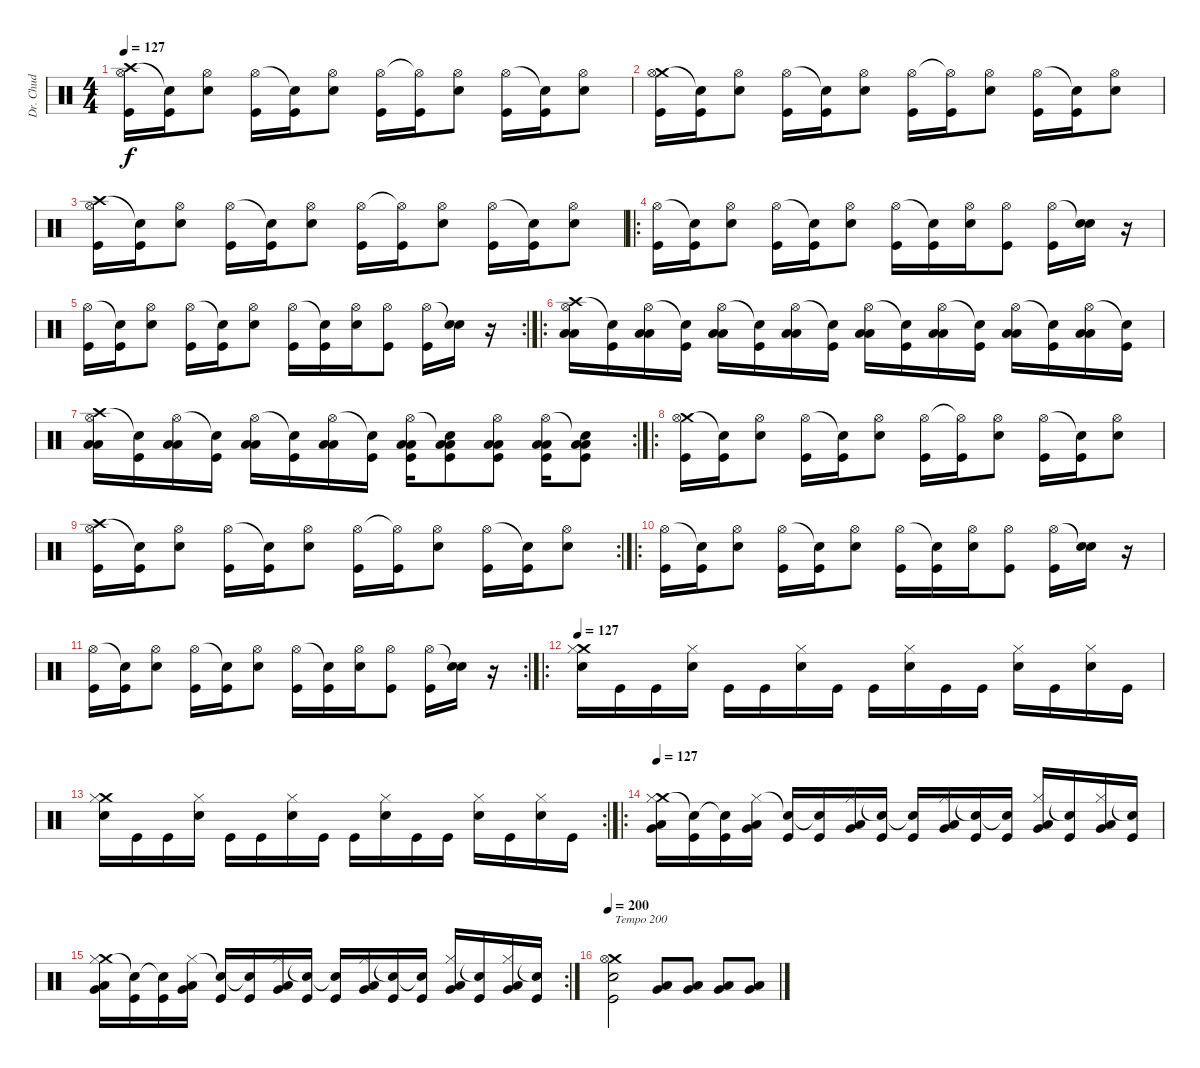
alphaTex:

\track ("Dr. Chud" "Dr. Chud") {instrument percussion}
\staff {score}
\articulation defaults
\ts (4 4)
\tempo 127
\clef neutral
\ks c
("Crash high (hit)" "Hi-Hat (open)" "Kick (hit)").16{dy f} ("Snare (hit)"{t} "Kick (hit)").16 ("Hi-Hat (open)" "Snare (hit) 2").8 ("Hi-Hat (open)" "Kick (hit)").16 ("Snare (hit)"{t} "Kick (hit)").16 ("Hi-Hat (open)" "Snare (hit) 2").8 ("Hi-Hat (open)" "Kick (hit)").16 ("Hi-Hat (open)"{t} "Kick (hit)").16 ("Hi-Hat (open)" "Snare (hit) 2").8 ("Hi-Hat (open)" "Kick (hit)").16 ("Snare (hit)"{t} "Kick (hit)").16 ("Hi-Hat (open)" "Snare (hit) 2").8 |
("Crash medium (hit)" "Hi-Hat (open)" "Kick (hit)").16 ("Snare (hit)"{t} "Kick (hit)").16 ("Hi-Hat (open)" "Snare (hit) 2").8 ("Hi-Hat (open)" "Kick (hit)").16 ("Snare (hit)"{t} "Kick (hit)").16 ("Hi-Hat (open)" "Snare (hit) 2").8 ("Hi-Hat (open)" "Kick (hit)").16 ("Hi-Hat (open)"{t} "Kick (hit)").16 ("Hi-Hat (open)" "Snare (hit) 2").8 ("Hi-Hat (open)" "Kick (hit)").16 ("Snare (hit)"{t} "Kick (hit)").16 ("Hi-Hat (open)" "Snare (hit) 2").8 |
("Crash high (hit)" "Hi-Hat (open)" "Kick (hit)").16 ("Snare (hit)"{t} "Kick (hit)").16 ("Hi-Hat (open)" "Snare (hit) 2").8 ("Hi-Hat (open)" "Kick (hit)").16 ("Snare (hit)"{t} "Kick (hit)").16 ("Hi-Hat (open)" "Snare (hit) 2").8 ("Hi-Hat (open)" "Kick (hit)").16 ("Hi-Hat (open)"{t} "Kick (hit)").16 ("Hi-Hat (open)" "Snare (hit) 2").8 ("Hi-Hat (open)" "Kick (hit)").16 ("Snare (hit)"{t} "Kick (hit)").16 ("Hi-Hat (open)" "Snare (hit) 2").8 |
\ro
("Hi-Hat (open)" "Kick (hit)").16 ("Snare (hit)"{t} "Kick (hit)").16 ("Hi-Hat (open)" "Snare (hit) 2").8 ("Hi-Hat (open)" "Kick (hit)").16 ("Snare (hit)"{t} "Kick (hit)").16 ("Hi-Hat (open)" "Snare (hit) 2").8 ("Hi-Hat (open)" "Kick (hit)").16 ("Snare (hit)"{t} "Kick (hit)").16 ("Hi-Hat (open)" "Snare (hit) 2").16 ("Hi-Hat (open)" "Kick (hit)").8 ("Hi-Hat (open)" "Kick (hit)").16 ("Snare (hit)"{t} "Snare (hit) 2").16 r.16 |
\rc 2
("Hi-Hat (open)" "Kick (hit)").16 ("Snare (hit)"{t} "Kick (hit)").16 ("Hi-Hat (open)" "Snare (hit) 2").8 ("Hi-Hat (open)" "Kick (hit)").16 ("Snare (hit)"{t} "Kick (hit)").16 ("Hi-Hat (open)" "Snare (hit) 2").8 ("Hi-Hat (open)" "Kick (hit)").16 ("Snare (hit)"{t} "Kick (hit)").16 ("Hi-Hat (open)" "Snare (hit) 2").16 ("Hi-Hat (open)" "Kick (hit)").8 ("Hi-Hat (open)" "Kick (hit)").16 ("Snare (hit)"{t} "Snare (hit) 2").16 r.16 |
\ro
("Crash high (hit)" "Hi-Hat (open)" "Low Floor Tom (hit)" "Low Tom (hit)").16 ("Snare (hit)"{t} "Kick (hit)").16 ("Hi-Hat (open)" "Low Floor Tom (hit)" "Low Tom (hit)").16 ("Snare (hit)"{t} "Kick (hit)").16 ("Hi-Hat (open)" "Low Floor Tom (hit)" "Low Tom (hit)").16 ("Snare (hit)"{t} "Kick (hit)").16 ("Hi-Hat (open)" "Low Floor Tom (hit)" "Low Tom (hit)").16 ("Snare (hit)"{t} "Kick (hit)").16 ("Hi-Hat (open)" "Low Floor Tom (hit)" "Low Tom (hit)").16 ("Snare (hit)"{t} "Kick (hit)").16 ("Hi-Hat (open)" "Low Floor Tom (hit)" "Low Tom (hit)").16 ("Snare (hit)"{t} "Kick (hit)").16 ("Hi-Hat (open)" "Low Floor Tom (hit)" "Low Tom (hit)").16 ("Snare (hit)"{t} "Kick (hit)").16 ("Hi-Hat (open)" "Low Floor Tom (hit)" "Low Tom (hit)").16 ("Snare (hit)"{t} "Kick (hit)").16 |
\rc 2
("Crash high (hit)" "Hi-Hat (open)" "Low Floor Tom (hit)" "Low Tom (hit)").16 ("Snare (hit)"{t} "Kick (hit)").16 ("Hi-Hat (open)" "Low Floor Tom (hit)" "Low Tom (hit)").16 ("Snare (hit)"{t} "Kick (hit)").16 ("Hi-Hat (open)" "Low Floor Tom (hit)" "Low Tom (hit)").16 ("Snare (hit)"{t} "Kick (hit)").16 ("Hi-Hat (open)" "Low Floor Tom (hit)" "Low Tom (hit)").16 ("Snare (hit)"{t} "Kick (hit)").16 ("Hi-Hat (open)" "Low Floor Tom (hit)" "Low Tom (hit)" "Kick (hit)").16 ("Snare (hit)"{t} "Low Floor Tom (hit)" "Low Tom (hit)" "Kick (hit)").8 ("Hi-Hat (open)" "Low Floor Tom (hit)" "Low Tom (hit)" "Kick (hit)").8 ("Hi-Hat (open)" "Low Floor Tom (hit)" "Low Tom (hit)" "Kick (hit)").16 ("Snare (hit)"{t} "Low Floor Tom (hit)" "Low Tom (hit)" "Kick (hit)").8 |
\ro
("Crash medium (hit)" "Hi-Hat (open)" "Kick (hit)").16 ("Snare (hit)"{t} "Kick (hit)").16 ("Hi-Hat (open)" "Snare (hit) 2").8 ("Hi-Hat (open)" "Kick (hit)").16 ("Snare (hit)"{t} "Kick (hit)").16 ("Hi-Hat (open)" "Snare (hit) 2").8 ("Hi-Hat (open)" "Kick (hit)").16 ("Hi-Hat (open)"{t} "Kick (hit)").16 ("Hi-Hat (open)" "Snare (hit) 2").8 ("Hi-Hat (open)" "Kick (hit)").16 ("Snare (hit)"{t} "Kick (hit)").16 ("Hi-Hat (open)" "Snare (hit) 2").8 |
\rc 2
("Crash high (hit)" "Hi-Hat (open)" "Kick (hit)").16 ("Snare (hit)"{t} "Kick (hit)").16 ("Hi-Hat (open)" "Snare (hit) 2").8 ("Hi-Hat (open)" "Kick (hit)").16 ("Snare (hit)"{t} "Kick (hit)").16 ("Hi-Hat (open)" "Snare (hit) 2").8 ("Hi-Hat (open)" "Kick (hit)").16 ("Hi-Hat (open)"{t} "Kick (hit)").16 ("Hi-Hat (open)" "Snare (hit) 2").8 ("Hi-Hat (open)" "Kick (hit)").16 ("Snare (hit)"{t} "Kick (hit)").16 ("Hi-Hat (open)" "Snare (hit) 2").8 |
\ro
("Hi-Hat (open)" "Kick (hit)").16 ("Snare (hit)"{t} "Kick (hit)").16 ("Hi-Hat (open)" "Snare (hit) 2").8 ("Hi-Hat (open)" "Kick (hit)").16 ("Snare (hit)"{t} "Kick (hit)").16 ("Hi-Hat (open)" "Snare (hit) 2").8 ("Hi-Hat (open)" "Kick (hit)").16 ("Snare (hit)"{t} "Kick (hit)").16 ("Hi-Hat (open)" "Snare (hit) 2").16 ("Hi-Hat (open)" "Kick (hit)").8 ("Hi-Hat (open)" "Kick (hit)").16 ("Snare (hit)"{t} "Snare (hit) 2").16 r.16 |
\rc 2
("Hi-Hat (open)" "Kick (hit)").16 ("Snare (hit)"{t} "Kick (hit)").16 ("Hi-Hat (open)" "Snare (hit) 2").8 ("Hi-Hat (open)" "Kick (hit)").16 ("Snare (hit)"{t} "Kick (hit)").16 ("Hi-Hat (open)" "Snare (hit) 2").8 ("Hi-Hat (open)" "Kick (hit)").16 ("Snare (hit)"{t} "Kick (hit)").16 ("Hi-Hat (open)" "Snare (hit) 2").16 ("Hi-Hat (open)" "Kick (hit)").8 ("Hi-Hat (open)" "Kick (hit)").16 ("Snare (hit)"{t} "Snare (hit) 2").16 r.16 |
\ro
\tempo 127
("Crash medium (hit)" "Hi-Hat (closed)" "Snare (hit) 2").16 "Kick (hit)".16 "Kick (hit)".16 ("Hi-Hat (closed)" "Snare (hit) 2").16 "Kick (hit)".16 "Kick (hit)".16 ("Hi-Hat (closed)" "Snare (hit) 2").16 "Kick (hit)".16 "Kick (hit)".16 ("Hi-Hat (closed)" "Snare (hit) 2").16 "Kick (hit)".16 "Kick (hit)".16 ("Hi-Hat (closed)" "Snare (hit) 2").16 "Kick (hit)".16 ("Hi-Hat (closed)" "Snare (hit) 2").16 "Kick (hit)".16 |
\rc 2
("Crash medium (hit)" "Hi-Hat (closed)" "Snare (hit) 2").16 "Kick (hit)".16 "Kick (hit)".16 ("Hi-Hat (closed)" "Snare (hit) 2").16 "Kick (hit)".16 "Kick (hit)".16 ("Hi-Hat (closed)" "Snare (hit) 2").16 "Kick (hit)".16 "Kick (hit)".16 ("Hi-Hat (closed)" "Snare (hit) 2").16 "Kick (hit)".16 "Kick (hit)".16 ("Hi-Hat (closed)" "Snare (hit) 2").16 "Kick (hit)".16 ("Hi-Hat (closed)" "Snare (hit) 2").16 "Kick (hit)".16 |
\ro
\tempo 127
("Crash medium (hit)" "Hi-Hat (closed)" "Very Low Tom (hit)" "Low Floor Tom (hit)").16 ("Snare (hit)"{t} "Kick (hit)").16 ("Snare (hit)"{t} "Kick (hit)").16 ("Hi-Hat (closed)" "Very Low Tom (hit)" "Low Floor Tom (hit)").16 ("Snare (hit)"{t} "Kick (hit)").16 ("Snare (hit)"{t} "Kick (hit)").16 ("Hi-Hat (closed)" "Very Low Tom (hit)" "Low Floor Tom (hit)").16 ("Snare (hit)"{t} "Kick (hit)").16 ("Snare (hit)"{t} "Kick (hit)").16 ("Hi-Hat (closed)" "Very Low Tom (hit)" "Low Floor Tom (hit)").16 ("Snare (hit)"{t} "Kick (hit)").16 ("Snare (hit)"{t} "Kick (hit)").16 ("Hi-Hat (closed)" "Very Low Tom (hit)" "Low Floor Tom (hit)").16 ("Snare (hit)"{t} "Kick (hit)").16 ("Hi-Hat (closed)" "Very Low Tom (hit)" "Low Floor Tom (hit)").16 ("Snare (hit)"{t} "Kick (hit)").16 |
\rc 2
("Crash medium (hit)" "Hi-Hat (closed)" "Very Low Tom (hit)" "Low Floor Tom (hit)").16 ("Snare (hit)"{t} "Kick (hit)").16 ("Snare (hit)"{t} "Kick (hit)").16 ("Hi-Hat (closed)" "Very Low Tom (hit)" "Low Floor Tom (hit)").16 ("Snare (hit)"{t} "Kick (hit)").16 ("Snare (hit)"{t} "Kick (hit)").16 ("Hi-Hat (closed)" "Very Low Tom (hit)" "Low Floor Tom (hit)").16 ("Snare (hit)"{t} "Kick (hit)").16 ("Snare (hit)"{t} "Kick (hit)").16 ("Hi-Hat (closed)" "Very Low Tom (hit)" "Low Floor Tom (hit)").16 ("Snare (hit)"{t} "Kick (hit)").16 ("Snare (hit)"{t} "Kick (hit)").16 ("Hi-Hat (closed)" "Very Low Tom (hit)" "Low Floor Tom (hit)").16 ("Snare (hit)"{t} "Kick (hit)").16 ("Hi-Hat (closed)" "Very Low Tom (hit)" "Low Floor Tom (hit)").16 ("Snare (hit)"{t} "Kick (hit)").16 |
\tempo 189
\tempo 200
("Crash medium (hit)" "Hi-Hat (open)" "Snare (hit) 2" "Kick (hit)").2{txt "Tempo 200"} ("Very Low Tom (hit)" "Low Floor Tom (hit)").8 ("Very Low Tom (hit)" "Low Floor Tom (hit)").8 ("Very Low Tom (hit)" "Low Floor Tom (hit)").8 ("Very Low Tom (hit)" "Low Floor Tom (hit)").8
